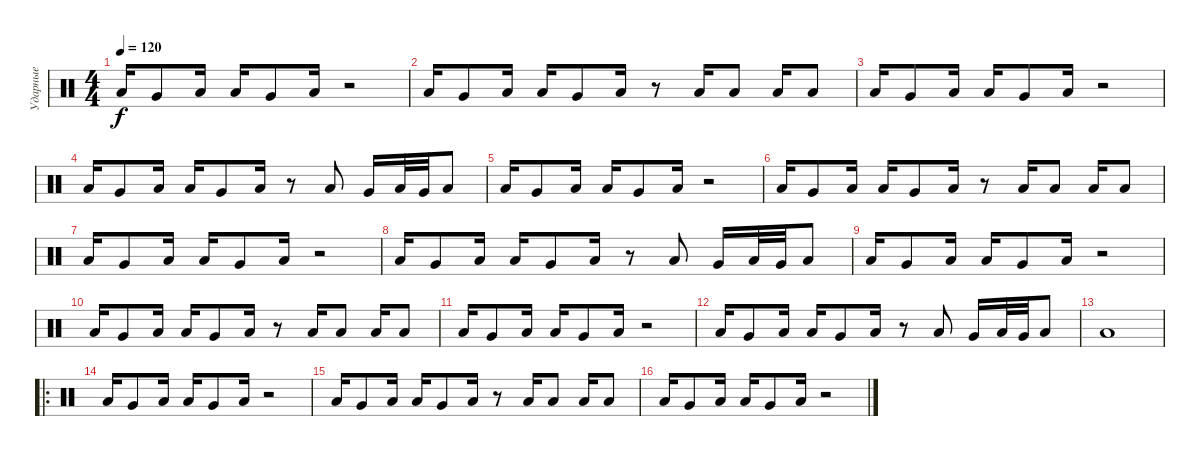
\track ("Ударные" "Ударные") {instrument percussion}
\staff {score}
\articulation defaults
\ts (4 4)
\tempo 120
\clef neutral
\ks c "Low Floor Tom (hit)".16{dy f} "Very Low Tom (hit)".8 "Low Tom (hit)".16 "Low Floor Tom (hit)".16 "Very Low Tom (hit)".8 "Low Tom (hit)".16
r.2 |
"Low Floor Tom (hit)".16 "Very Low Tom (hit)".8 "Low Tom (hit)".16 "Low Floor Tom (hit)".16 "Very Low Tom (hit)".8 "Low Tom (hit)".16 r.8 "Low Tom (hit)".16 "Low Tom (hit)".8 "Low Tom (hit)".16 "Low Tom (hit)".8 |
"Low Floor Tom (hit)".16 "Very Low Tom (hit)".8 "Low Tom (hit)".16 "Low Floor Tom (hit)".16 "Very Low Tom (hit)".8 "Low Tom (hit)".16 r.2 |
"Low Floor Tom (hit)".16 "Very Low Tom (hit)".8 "Low Tom (hit)".16 "Low Floor Tom (hit)".16 "Very Low Tom (hit)".8 "Low Tom (hit)".16 r.8 "Low Tom (hit)".8 "Very Low Tom (hit)".16 "Low Tom (hit)".32 "Very Low Tom (hit)".32 "Low Tom (hit)".8 |
"Low Floor Tom (hit)".16 "Very Low Tom (hit)".8 "Low Tom (hit)".16 "Low Floor Tom (hit)".16 "Very Low Tom (hit)".8 "Low Tom (hit)".16 r.2 |
"Low Floor Tom (hit)".16 "Very Low Tom (hit)".8 "Low Tom (hit)".16 "Low Floor Tom (hit)".16 "Very Low Tom (hit)".8 "Low Tom (hit)".16 r.8 "Low Tom (hit)".16 "Low Tom (hit)".8 "Low Tom (hit)".16 "Low Tom (hit)".8 |
"Low Floor Tom (hit)".16 "Very Low Tom (hit)".8 "Low Tom (hit)".16 "Low Floor Tom (hit)".16 "Very Low Tom (hit)".8 "Low Tom (hit)".16 r.2 |
"Low Floor Tom (hit)".16 "Very Low Tom (hit)".8 "Low Tom (hit)".16 "Low Floor Tom (hit)".16 "Very Low Tom (hit)".8 "Low Tom (hit)".16 r.8 "Low Tom (hit)".8 "Very Low Tom (hit)".16 "Low Tom (hit)".32 "Very Low Tom (hit)".32 "Low Tom (hit)".8 |
"Low Floor Tom (hit)".16 "Very Low Tom (hit)".8 "Low Tom (hit)".16 "Low Floor Tom (hit)".16 "Very Low Tom (hit)".8 "Low Tom (hit)".16 r.2 |
"Low Floor Tom (hit)".16 "Very Low Tom (hit)".8 "Low Tom (hit)".16 "Low Floor Tom (hit)".16 "Very Low Tom (hit)".8 "Low Tom (hit)".16 r.8 "Low Tom (hit)".16 "Low Tom (hit)".8 "Low Tom (hit)".16 "Low Tom (hit)".8 |
"Low Floor Tom (hit)".16 "Very Low Tom (hit)".8 "Low Tom (hit)".16 "Low Floor Tom (hit)".16 "Very Low Tom (hit)".8 "Low Tom (hit)".16 r.2 |
"Low Floor Tom (hit)".16 "Very Low Tom (hit)".8 "Low Tom (hit)".16 "Low Floor Tom (hit)".16 "Very Low Tom (hit)".8 "Low Tom (hit)".16 r.8 "Low Tom (hit)".8 "Very Low Tom (hit)".16 "Low Tom (hit)".32 "Very Low Tom (hit)".32 "Low Tom (hit)".8 |
"Low Tom (hit)".1 |
\ro "Low Floor Tom (hit)".16 "Very Low Tom (hit)".8 "Low Tom (hit)".16 "Low Floor Tom (hit)".16 "Very Low Tom (hit)".8 "Low Tom (hit)".16
r.2 |
"Low Floor Tom (hit)".16 "Very Low Tom (hit)".8 "Low Tom (hit)".16 "Low Floor Tom (hit)".16 "Very Low Tom (hit)".8 "Low Tom (hit)".16 r.8 "Low Tom (hit)".16 "Low Tom (hit)".8 "Low Tom (hit)".16 "Low Tom (hit)".8 |
"Low Floor Tom (hit)".16 "Very Low Tom (hit)".8 "Low Tom (hit)".16 "Low Floor Tom (hit)".16 "Very Low Tom (hit)".8 "Low Tom (hit)".16 r.2
